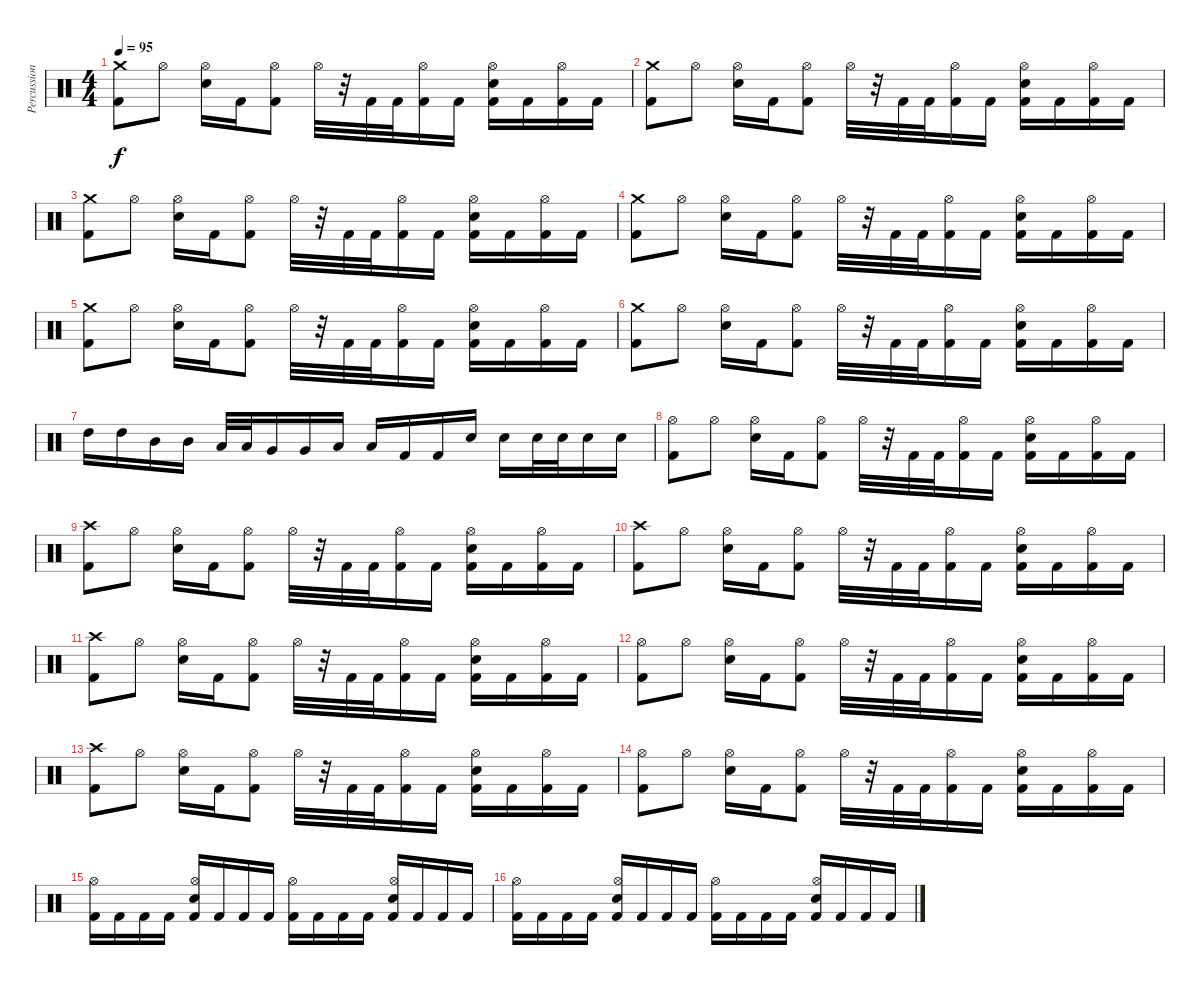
\track ("Percussion" "Percussion") {instrument percussion}
\staff {score}
\articulation defaults
\ts (4 4)
\tempo 95
\clef neutral
\ks c
("Crash medium (hit)" "Kick (hit) 2").8{dy f} "Hi-Hat (open)".8 ("Hi-Hat (open)" "Electric Snare (hit)").16 "Kick (hit) 2".16 ("Hi-Hat (open)" "Kick (hit) 2").8 "Hi-Hat (open)".32 r.32 "Kick (hit) 2".32 "Kick (hit) 2".32 ("Kick (hit) 2" "Hi-Hat (open)").16 "Kick (hit) 2".16 ("Kick (hit) 2" "Hi-Hat (open)" "Electric Snare (hit)").16 "Kick (hit) 2".16 ("Kick (hit) 2" "Hi-Hat (open)").16 "Kick (hit) 2".16 |
("Crash medium (hit)" "Kick (hit) 2").8 "Hi-Hat (open)".8 ("Hi-Hat (open)" "Electric Snare (hit)").16 "Kick (hit) 2".16 ("Hi-Hat (open)" "Kick (hit) 2").8 "Hi-Hat (open)".32 r.32 "Kick (hit) 2".32 "Kick (hit) 2".32 ("Kick (hit) 2" "Hi-Hat (open)").16 "Kick (hit) 2".16 ("Kick (hit) 2" "Hi-Hat (open)" "Electric Snare (hit)").16 "Kick (hit) 2".16 ("Kick (hit) 2" "Hi-Hat (open)").16 "Kick (hit) 2".16 |
("Crash medium (hit)" "Kick (hit) 2").8 "Hi-Hat (open)".8 ("Hi-Hat (open)" "Electric Snare (hit)").16 "Kick (hit) 2".16 ("Hi-Hat (open)" "Kick (hit) 2").8 "Hi-Hat (open)".32 r.32 "Kick (hit) 2".32 "Kick (hit) 2".32 ("Kick (hit) 2" "Hi-Hat (open)").16 "Kick (hit) 2".16 ("Kick (hit) 2" "Hi-Hat (open)" "Electric Snare (hit)").16 "Kick (hit) 2".16 ("Kick (hit) 2" "Hi-Hat (open)").16 "Kick (hit) 2".16 |
("Crash medium (hit)" "Kick (hit) 2").8 "Hi-Hat (open)".8 ("Hi-Hat (open)" "Electric Snare (hit)").16 "Kick (hit) 2".16 ("Hi-Hat (open)" "Kick (hit) 2").8 "Hi-Hat (open)".32 r.32 "Kick (hit) 2".32 "Kick (hit) 2".32 ("Kick (hit) 2" "Hi-Hat (open)").16 "Kick (hit) 2".16 ("Kick (hit) 2" "Hi-Hat (open)" "Electric Snare (hit)").16 "Kick (hit) 2".16 ("Kick (hit) 2" "Hi-Hat (open)").16 "Kick (hit) 2".16 |
("Crash medium (hit)" "Kick (hit) 2").8 "Hi-Hat (open)".8 ("Hi-Hat (open)" "Electric Snare (hit)").16 "Kick (hit) 2".16 ("Hi-Hat (open)" "Kick (hit) 2").8 "Hi-Hat (open)".32 r.32 "Kick (hit) 2".32 "Kick (hit) 2".32 ("Kick (hit) 2" "Hi-Hat (open)").16 "Kick (hit) 2".16 ("Kick (hit) 2" "Hi-Hat (open)" "Electric Snare (hit)").16 "Kick (hit) 2".16 ("Kick (hit) 2" "Hi-Hat (open)").16 "Kick (hit) 2".16 |
("Crash medium (hit)" "Kick (hit) 2").8 "Hi-Hat (open)".8 ("Hi-Hat (open)" "Electric Snare (hit)").16 "Kick (hit) 2".16 ("Hi-Hat (open)" "Kick (hit) 2").8 "Hi-Hat (open)".32 r.32 "Kick (hit) 2".32 "Kick (hit) 2".32 ("Kick (hit) 2" "Hi-Hat (open)").16 "Kick (hit) 2".16 ("Kick (hit) 2" "Hi-Hat (open)" "Electric Snare (hit)").16 "Kick (hit) 2".16 ("Kick (hit) 2" "Hi-Hat (open)").16 "Kick (hit) 2".16 |
"High Tom (hit)".16 "High Tom (hit)".16 "Mid Tom (hit)".16 "Mid Tom (hit)".16 "Low Tom (hit)".32 "Low Tom (hit)".32 "Very Low Tom (hit)".16 "Very Low Tom (hit)".16 "Low Floor Tom (hit)".16 "Low Floor Tom (hit)".16 "Kick (hit) 2".16 "Kick (hit) 2".16 "Electric Snare (hit)".16 "Electric Snare (hit)".16 "Electric Snare (hit)".32 "Electric Snare (hit)".32 "Electric Snare (hit)".16 "Electric Snare (hit)".16 |
("Hi-Hat (open)" "Kick (hit) 2").8 "Hi-Hat (open)".8 ("Hi-Hat (open)" "Electric Snare (hit)").16 "Kick (hit) 2".16 ("Hi-Hat (open)" "Kick (hit) 2").8 "Hi-Hat (open)".32 r.32 "Kick (hit) 2".32 "Kick (hit) 2".32 ("Kick (hit) 2" "Hi-Hat (open)").16 "Kick (hit) 2".16 ("Kick (hit) 2" "Hi-Hat (open)" "Electric Snare (hit)").16 "Kick (hit) 2".16 ("Kick (hit) 2" "Hi-Hat (open)").16 "Kick (hit) 2".16 |
("Crash high (hit)" "Kick (hit) 2").8 "Hi-Hat (open)".8 ("Hi-Hat (open)" "Electric Snare (hit)").16 "Kick (hit) 2".16 ("Hi-Hat (open)" "Kick (hit) 2").8 "Hi-Hat (open)".32 r.32 "Kick (hit) 2".32 "Kick (hit) 2".32 ("Kick (hit) 2" "Hi-Hat (open)").16 "Kick (hit) 2".16 ("Kick (hit) 2" "Hi-Hat (open)" "Electric Snare (hit)").16 "Kick (hit) 2".16 ("Kick (hit) 2" "Hi-Hat (open)").16 "Kick (hit) 2".16 |
("Crash high (hit)" "Kick (hit) 2").8 "Hi-Hat (open)".8 ("Hi-Hat (open)" "Electric Snare (hit)").16 "Kick (hit) 2".16 ("Hi-Hat (open)" "Kick (hit) 2").8 "Hi-Hat (open)".32 r.32 "Kick (hit) 2".32 "Kick (hit) 2".32 ("Kick (hit) 2" "Hi-Hat (open)").16 "Kick (hit) 2".16 ("Kick (hit) 2" "Hi-Hat (open)" "Electric Snare (hit)").16 "Kick (hit) 2".16 ("Kick (hit) 2" "Hi-Hat (open)").16 "Kick (hit) 2".16 |
("Crash high (hit)" "Kick (hit) 2").8 "Hi-Hat (open)".8 ("Hi-Hat (open)" "Electric Snare (hit)").16 "Kick (hit) 2".16 ("Hi-Hat (open)" "Kick (hit) 2").8 "Hi-Hat (open)".32 r.32 "Kick (hit) 2".32 "Kick (hit) 2".32 ("Kick (hit) 2" "Hi-Hat (open)").16 "Kick (hit) 2".16 ("Kick (hit) 2" "Hi-Hat (open)" "Electric Snare (hit)").16 "Kick (hit) 2".16 ("Kick (hit) 2" "Hi-Hat (open)").16 "Kick (hit) 2".16 |
("Hi-Hat (open)" "Kick (hit) 2").8 "Hi-Hat (open)".8 ("Hi-Hat (open)" "Electric Snare (hit)").16 "Kick (hit) 2".16 ("Hi-Hat (open)" "Kick (hit) 2").8 "Hi-Hat (open)".32 r.32 "Kick (hit) 2".32 "Kick (hit) 2".32 ("Kick (hit) 2" "Hi-Hat (open)").16 "Kick (hit) 2".16 ("Kick (hit) 2" "Hi-Hat (open)" "Electric Snare (hit)").16 "Kick (hit) 2".16 ("Kick (hit) 2" "Hi-Hat (open)").16 "Kick (hit) 2".16 |
("Crash high (hit)" "Kick (hit) 2").8 "Hi-Hat (open)".8 ("Hi-Hat (open)" "Electric Snare (hit)").16 "Kick (hit) 2".16 ("Hi-Hat (open)" "Kick (hit) 2").8 "Hi-Hat (open)".32 r.32 "Kick (hit) 2".32 "Kick (hit) 2".32 ("Kick (hit) 2" "Hi-Hat (open)").16 "Kick (hit) 2".16 ("Kick (hit) 2" "Hi-Hat (open)" "Electric Snare (hit)").16 "Kick (hit) 2".16 ("Kick (hit) 2" "Hi-Hat (open)").16 "Kick (hit) 2".16 |
("Hi-Hat (open)" "Kick (hit) 2").8 "Hi-Hat (open)".8 ("Hi-Hat (open)" "Electric Snare (hit)").16 "Kick (hit) 2".16 ("Hi-Hat (open)" "Kick (hit) 2").8 "Hi-Hat (open)".32 r.32 "Kick (hit) 2".32 "Kick (hit) 2".32 ("Kick (hit) 2" "Hi-Hat (open)").16 "Kick (hit) 2".16 ("Kick (hit) 2" "Hi-Hat (open)" "Electric Snare (hit)").16 "Kick (hit) 2".16 ("Kick (hit) 2" "Hi-Hat (open)").16 "Kick (hit) 2".16 |
("Kick (hit) 2" "Hi-Hat (open)").16 "Kick (hit) 2".16 "Kick (hit) 2".16 "Kick (hit) 2".16 ("Kick (hit) 2" "Hi-Hat (open)" "Electric Snare (hit)").16 "Kick (hit) 2".16 "Kick (hit) 2".16 "Kick (hit) 2".16 ("Kick (hit) 2" "Hi-Hat (open)").16 "Kick (hit) 2".16 "Kick (hit) 2".16 "Kick (hit) 2".16 ("Kick (hit) 2" "Hi-Hat (open)" "Electric Snare (hit)").16 "Kick (hit) 2".16 "Kick (hit) 2".16 "Kick (hit) 2".16 |
("Kick (hit) 2" "Hi-Hat (open)").16 "Kick (hit) 2".16 "Kick (hit) 2".16 "Kick (hit) 2".16 ("Kick (hit) 2" "Hi-Hat (open)" "Electric Snare (hit)").16 "Kick (hit) 2".16 "Kick (hit) 2".16 "Kick (hit) 2".16 ("Kick (hit) 2" "Hi-Hat (open)").16 "Kick (hit) 2".16 "Kick (hit) 2".16 "Kick (hit) 2".16 ("Kick (hit) 2" "Hi-Hat (open)" "Electric Snare (hit)").16 "Kick (hit) 2".16 "Kick (hit) 2".16 "Kick (hit) 2".16
